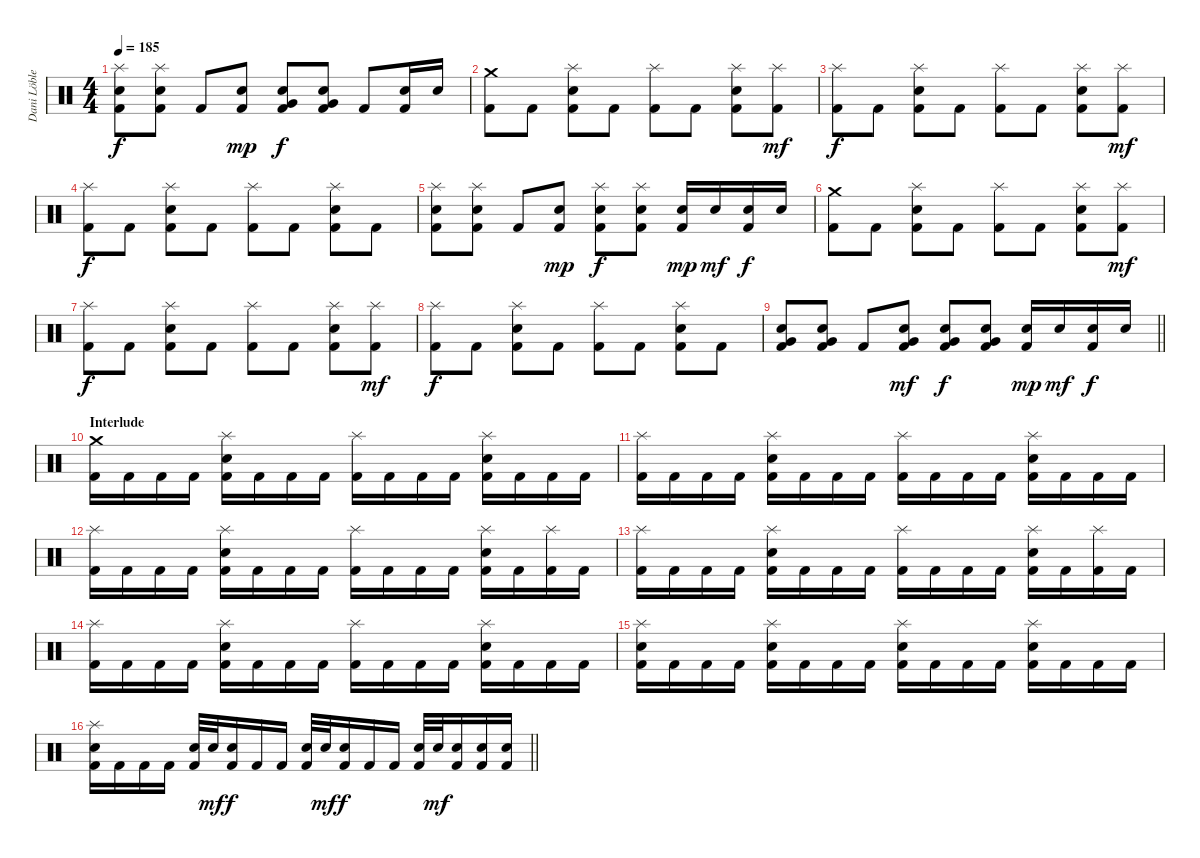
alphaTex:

\track ("Dani Löble" "Dani Löble") {instrument percussion}
\staff {score}
\articulation defaults
\ts (4 4)
\tempo 185
\clef neutral
\ks c
("Splash (hit)" "Electric Snare (hit)" "Kick (hit) 2").8{dy f} ("Splash (hit)" "Electric Snare (hit)" "Kick (hit) 2").8 "Kick (hit) 2".8 ("Electric Snare (hit)" "Kick (hit) 2").8{dy mp} ("Electric Snare (hit)" "Very Low Tom (hit)" "Kick (hit) 2").8{dy f} ("Electric Snare (hit)" "Very Low Tom (hit)" "Kick (hit) 2").8 "Kick (hit) 2".8 ("Electric Snare (hit)" "Kick (hit) 2").16 "Electric Snare (hit)".16 |
("Crash medium (hit)" "Kick (hit) 2").8 "Kick (hit) 2".8 ("Splash (hit)" "Electric Snare (hit)" "Kick (hit) 2").8 "Kick (hit) 2".8 ("Splash (hit)" "Kick (hit) 2").8 "Kick (hit) 2".8 ("Splash (hit)" "Electric Snare (hit)" "Kick (hit) 2").8 ("Splash (hit)" "Kick (hit) 2").8{dy mf} |
("Splash (hit)" "Kick (hit) 2").8{dy f} "Kick (hit) 2".8 ("Splash (hit)" "Electric Snare (hit)" "Kick (hit) 2").8 "Kick (hit) 2".8 ("Splash (hit)" "Kick (hit) 2").8 "Kick (hit) 2".8 ("Splash (hit)" "Electric Snare (hit)" "Kick (hit) 2").8 ("Splash (hit)" "Kick (hit) 2").8{dy mf} |
("Splash (hit)" "Kick (hit) 2").8{dy f} "Kick (hit) 2".8 ("Splash (hit)" "Electric Snare (hit)" "Kick (hit) 2").8 "Kick (hit) 2".8 ("Splash (hit)" "Kick (hit) 2").8 "Kick (hit) 2".8 ("Splash (hit)" "Electric Snare (hit)" "Kick (hit) 2").8 "Kick (hit) 2".8 |
("Splash (hit)" "Electric Snare (hit)" "Kick (hit) 2").8 ("Splash (hit)" "Electric Snare (hit)" "Kick (hit) 2").8 "Kick (hit) 2".8 ("Electric Snare (hit)" "Kick (hit) 2").8{dy mp} ("Splash (hit)" "Electric Snare (hit)" "Kick (hit) 2").8{dy f} ("Splash (hit)" "Electric Snare (hit)" "Kick (hit) 2").8 ("Electric Snare (hit)" "Kick (hit) 2").16{dy mp} "Electric Snare (hit)".16{dy mf} ("Electric Snare (hit)" "Kick (hit) 2").16{dy f} "Electric Snare (hit)".16 |
("Crash medium (hit)" "Kick (hit) 2").8 "Kick (hit) 2".8 ("Splash (hit)" "Electric Snare (hit)" "Kick (hit) 2").8 "Kick (hit) 2".8 ("Splash (hit)" "Kick (hit) 2").8 "Kick (hit) 2".8 ("Splash (hit)" "Electric Snare (hit)" "Kick (hit) 2").8 ("Splash (hit)" "Kick (hit) 2").8{dy mf} |
("Splash (hit)" "Kick (hit) 2").8{dy f} "Kick (hit) 2".8 ("Splash (hit)" "Electric Snare (hit)" "Kick (hit) 2").8 "Kick (hit) 2".8 ("Splash (hit)" "Kick (hit) 2").8 "Kick (hit) 2".8 ("Splash (hit)" "Electric Snare (hit)" "Kick (hit) 2").8 ("Splash (hit)" "Kick (hit) 2").8{dy mf} |
("Splash (hit)" "Kick (hit) 2").8{dy f} "Kick (hit) 2".8 ("Splash (hit)" "Electric Snare (hit)" "Kick (hit) 2").8 "Kick (hit) 2".8 ("Splash (hit)" "Kick (hit) 2").8 "Kick (hit) 2".8 ("Splash (hit)" "Electric Snare (hit)" "Kick (hit) 2").8 "Kick (hit) 2".8 |
\barLineRight lightlight
("Electric Snare (hit)" "Very Low Tom (hit)" "Kick (hit) 2").8 ("Electric Snare (hit)" "Very Low Tom (hit)" "Kick (hit) 2").8 "Kick (hit) 2".8 ("Electric Snare (hit)" "Very Low Tom (hit)" "Kick (hit) 2").8{dy mf} ("Electric Snare (hit)" "Very Low Tom (hit)" "Kick (hit) 2").8{dy f} ("Electric Snare (hit)" "Very Low Tom (hit)" "Kick (hit) 2").8 ("Electric Snare (hit)" "Kick (hit) 2").16{dy mp} "Electric Snare (hit)".16{dy mf} ("Electric Snare (hit)" "Kick (hit) 2").16{dy f} "Electric Snare (hit)".16 |
\section ("" "Interlude")
("Crash medium (hit)" "Kick (hit) 2").16 "Kick (hit) 2".16 "Kick (hit) 2".16 "Kick (hit) 2".16 ("Splash (hit)" "Electric Snare (hit)" "Kick (hit) 2").16 "Kick (hit) 2".16 "Kick (hit) 2".16 "Kick (hit) 2".16 ("Splash (hit)" "Kick (hit) 2").16 "Kick (hit) 2".16 "Kick (hit) 2".16 "Kick (hit) 2".16 ("Splash (hit)" "Electric Snare (hit)" "Kick (hit) 2").16 "Kick (hit) 2".16 "Kick (hit) 2".16 "Kick (hit) 2".16 |
("Splash (hit)" "Kick (hit) 2").16 "Kick (hit) 2".16 "Kick (hit) 2".16 "Kick (hit) 2".16 ("Splash (hit)" "Electric Snare (hit)" "Kick (hit) 2").16 "Kick (hit) 2".16 "Kick (hit) 2".16 "Kick (hit) 2".16 ("Splash (hit)" "Kick (hit) 2").16 "Kick (hit) 2".16 "Kick (hit) 2".16 "Kick (hit) 2".16 ("Splash (hit)" "Electric Snare (hit)" "Kick (hit) 2").16 "Kick (hit) 2".16 "Kick (hit) 2".16 "Kick (hit) 2".16 |
("Splash (hit)" "Kick (hit) 2").16 "Kick (hit) 2".16 "Kick (hit) 2".16 "Kick (hit) 2".16 ("Splash (hit)" "Electric Snare (hit)" "Kick (hit) 2").16 "Kick (hit) 2".16 "Kick (hit) 2".16 "Kick (hit) 2".16 ("Splash (hit)" "Kick (hit) 2").16 "Kick (hit) 2".16 "Kick (hit) 2".16 "Kick (hit) 2".16 ("Splash (hit)" "Electric Snare (hit)" "Kick (hit) 2").16 "Kick (hit) 2".16 ("Splash (hit)" "Kick (hit) 2").16 "Kick (hit) 2".16 |
("Splash (hit)" "Kick (hit) 2").16 "Kick (hit) 2".16 "Kick (hit) 2".16 "Kick (hit) 2".16 ("Splash (hit)" "Electric Snare (hit)" "Kick (hit) 2").16 "Kick (hit) 2".16 "Kick (hit) 2".16 "Kick (hit) 2".16 ("Splash (hit)" "Kick (hit) 2").16 "Kick (hit) 2".16 "Kick (hit) 2".16 "Kick (hit) 2".16 ("Splash (hit)" "Electric Snare (hit)" "Kick (hit) 2").16 "Kick (hit) 2".16 ("Splash (hit)" "Kick (hit) 2").16 "Kick (hit) 2".16 |
("Splash (hit)" "Kick (hit) 2").16 "Kick (hit) 2".16 "Kick (hit) 2".16 "Kick (hit) 2".16 ("Splash (hit)" "Electric Snare (hit)" "Kick (hit) 2").16 "Kick (hit) 2".16 "Kick (hit) 2".16 "Kick (hit) 2".16 ("Splash (hit)" "Kick (hit) 2").16 "Kick (hit) 2".16 "Kick (hit) 2".16 "Kick (hit) 2".16 ("Splash (hit)" "Electric Snare (hit)" "Kick (hit) 2").16 "Kick (hit) 2".16 "Kick (hit) 2".16 "Kick (hit) 2".16 |
("Splash (hit)" "Electric Snare (hit)" "Kick (hit) 2").16 "Kick (hit) 2".16 "Kick (hit) 2".16 "Kick (hit) 2".16 ("Splash (hit)" "Electric Snare (hit)" "Kick (hit) 2").16 "Kick (hit) 2".16 "Kick (hit) 2".16 "Kick (hit) 2".16 ("Splash (hit)" "Electric Snare (hit)" "Kick (hit) 2").16 "Kick (hit) 2".16 "Kick (hit) 2".16 "Kick (hit) 2".16 ("Splash (hit)" "Electric Snare (hit)" "Kick (hit) 2").16 "Kick (hit) 2".16 "Kick (hit) 2".16 "Kick (hit) 2".16 |
\barLineRight lightlight
("Splash (hit)" "Electric Snare (hit)" "Kick (hit) 2").16 "Kick (hit) 2".16 "Kick (hit) 2".16 "Kick (hit) 2".16 ("Electric Snare (hit)" "Kick (hit) 2").32 "Electric Snare (hit)".32{dy mf} ("Electric Snare (hit)" "Kick (hit) 2").16{dy f} "Kick (hit) 2".16 "Kick (hit) 2".16 ("Electric Snare (hit)" "Kick (hit) 2").32 "Electric Snare (hit)".32{dy mf} ("Electric Snare (hit)" "Kick (hit) 2").16{dy f} "Kick (hit) 2".16 "Kick (hit) 2".16 ("Electric Snare (hit)" "Kick (hit) 2").32 "Electric Snare (hit)".32{dy mf} ("Electric Snare (hit)" "Kick (hit) 2").16 ("Electric Snare (hit)" "Kick (hit) 2").16 ("Electric Snare (hit)" "Kick (hit) 2").16
